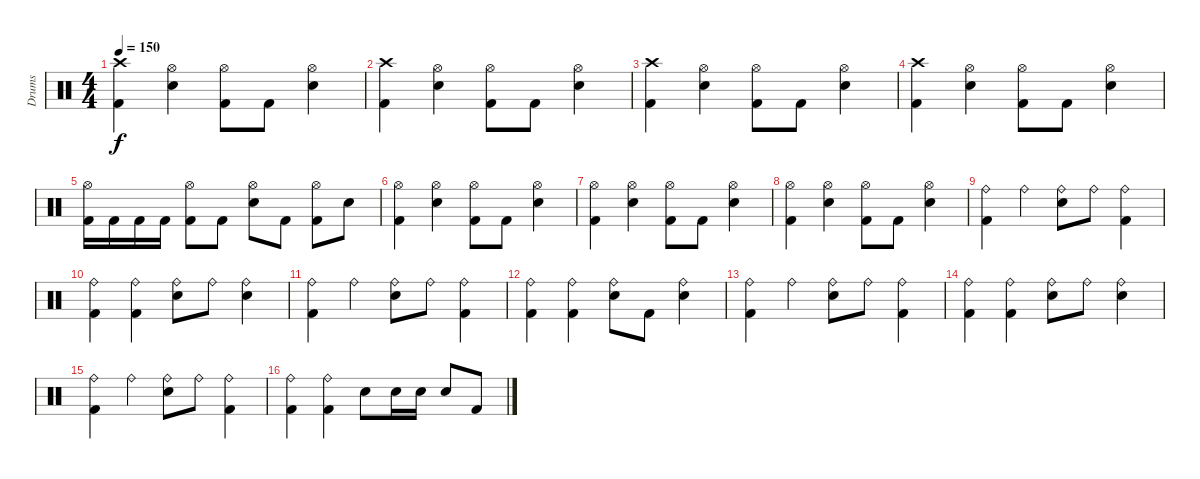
\track ("Drums" "Drums") {instrument percussion}
\staff {score}
\articulation defaults
\ts (4 4)
\tempo 150
\clef neutral
\ks c
("Crash high (hit)" "Kick (hit) 2").4{dy f} ("Hi-Hat (open)" "Electric Snare (hit)").4 ("Hi-Hat (open)" "Kick (hit) 2").8 "Kick (hit) 2".8 ("Hi-Hat (open)" "Electric Snare (hit)").4 |
("Crash high (hit)" "Kick (hit) 2").4 ("Hi-Hat (open)" "Electric Snare (hit)").4 ("Hi-Hat (open)" "Kick (hit) 2").8 "Kick (hit) 2".8 ("Hi-Hat (open)" "Electric Snare (hit)").4 |
("Crash high (hit)" "Kick (hit) 2").4 ("Hi-Hat (open)" "Electric Snare (hit)").4 ("Hi-Hat (open)" "Kick (hit) 2").8 "Kick (hit) 2".8 ("Hi-Hat (open)" "Electric Snare (hit)").4 |
("Crash high (hit)" "Kick (hit) 2").4 ("Hi-Hat (open)" "Electric Snare (hit)").4 ("Hi-Hat (open)" "Kick (hit) 2").8 "Kick (hit) 2".8 ("Hi-Hat (open)" "Electric Snare (hit)").4 |
("Hi-Hat (open)" "Kick (hit) 2").16 "Kick (hit) 2".16 "Kick (hit) 2".16 "Kick (hit) 2".16 ("Hi-Hat (open)" "Kick (hit) 2").8 "Kick (hit) 2".8 ("Hi-Hat (open)" "Electric Snare (hit)").8 "Kick (hit) 2".8 ("Hi-Hat (open)" "Kick (hit) 2").8 "Electric Snare (hit)".8 |
("Hi-Hat (open)" "Kick (hit) 2").4 ("Hi-Hat (open)" "Electric Snare (hit)").4 ("Hi-Hat (open)" "Kick (hit) 2").8 "Kick (hit) 2".8 ("Hi-Hat (open)" "Electric Snare (hit)").4 |
("Hi-Hat (open)" "Kick (hit) 2").4 ("Hi-Hat (open)" "Electric Snare (hit)").4 ("Hi-Hat (open)" "Kick (hit) 2").8 "Kick (hit) 2".8 ("Hi-Hat (open)" "Electric Snare (hit)").4 |
("Hi-Hat (open)" "Kick (hit) 2").4 ("Hi-Hat (open)" "Electric Snare (hit)").4 ("Hi-Hat (open)" "Kick (hit) 2").8 "Kick (hit) 2".8 ("Hi-Hat (open)" "Electric Snare (hit)").4 |
("Ride (bell)" "Kick (hit) 2").4 "Ride (bell)".4 ("Ride (bell)" "Electric Snare (hit)").8 "Ride (bell)".8 ("Ride (bell)" "Kick (hit) 2").4 |
("Ride (bell)" "Kick (hit) 2").4 ("Ride (bell)" "Kick (hit) 2").4 ("Ride (bell)" "Electric Snare (hit)").8 "Ride (bell)".8 ("Ride (bell)" "Electric Snare (hit)").4 |
("Ride (bell)" "Kick (hit) 2").4 "Ride (bell)".4 ("Ride (bell)" "Electric Snare (hit)").8 "Ride (bell)".8 ("Ride (bell)" "Kick (hit) 2").4 |
("Ride (bell)" "Kick (hit) 2").4 ("Ride (bell)" "Kick (hit) 2").4 ("Ride (bell)" "Electric Snare (hit)").8 "Kick (hit) 2".8 ("Ride (bell)" "Electric Snare (hit)").4 |
("Ride (bell)" "Kick (hit) 2").4 "Ride (bell)".4 ("Ride (bell)" "Electric Snare (hit)").8 "Ride (bell)".8 ("Ride (bell)" "Kick (hit) 2").4 |
("Ride (bell)" "Kick (hit) 2").4 ("Ride (bell)" "Kick (hit) 2").4 ("Ride (bell)" "Electric Snare (hit)").8 "Ride (bell)".8 ("Ride (bell)" "Electric Snare (hit)").4 |
("Ride (bell)" "Kick (hit) 2").4 "Ride (bell)".4 ("Ride (bell)" "Electric Snare (hit)").8 "Ride (bell)".8 ("Ride (bell)" "Kick (hit) 2").4 |
("Ride (bell)" "Kick (hit) 2").4 ("Ride (bell)" "Kick (hit) 2").4 "Electric Snare (hit)".8 "Electric Snare (hit)".16 "Electric Snare (hit)".16 "Electric Snare (hit)".8 "Kick (hit) 2".8
